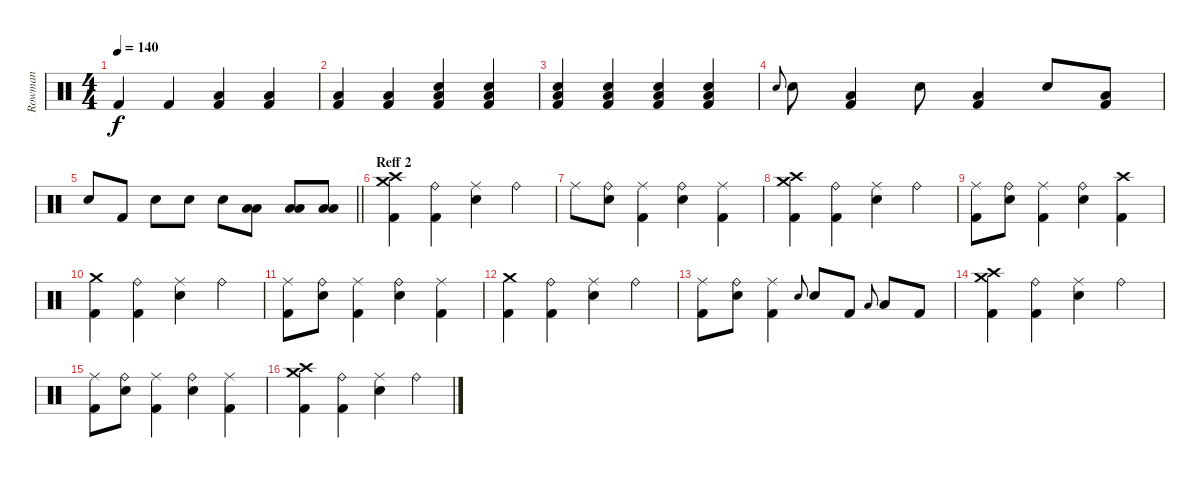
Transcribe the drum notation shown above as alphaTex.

\track ("Rowman" "Rowman") {instrument percussion}
\staff {score}
\articulation defaults
\ts (4 4)
\tempo 140
\clef neutral
\ks c "Kick (hit) 2".4{dy f} "Kick (hit) 2".4
("Low Floor Tom (hit)" "Kick (hit) 2").4 ("Low Floor Tom (hit)" "Kick (hit) 2").4 |
("Low Floor Tom (hit)" "Kick (hit) 2").4 ("Low Floor Tom (hit)" "Kick (hit) 2").4 ("Low Floor Tom (hit)" "Snare (hit) 2" "Kick (hit) 2").4 ("Low Floor Tom (hit)" "Snare (hit) 2" "Kick (hit) 2").4 |
("Low Floor Tom (hit)" "Snare (hit) 2" "Kick (hit) 2").4 ("Low Floor Tom (hit)" "Snare (hit) 2" "Kick (hit) 2").4 ("Low Floor Tom (hit)" "Snare (hit) 2" "Kick (hit) 2").4 ("Low Floor Tom (hit)" "Snare (hit) 2" "Kick (hit) 2").4 |
"Snare (hit) 2".8{gr onbeat} "Snare (hit) 2".8 ("Low Floor Tom (hit)" "Kick (hit) 2").4 "Snare (hit) 2".8 ("Low Floor Tom (hit)" "Kick (hit) 2").4 "Snare (hit) 2".8 ("Low Floor Tom (hit)" "Kick (hit) 2").8 |
\barLineRight lightlight "Snare (hit) 2".8 "Kick (hit) 2".8 "Snare (hit) 2".8 "Snare (hit) 2".8 "Snare (hit) 2".8
("Low Floor Tom (hit)" "Low Tom (hit)").8 ("Low Tom (hit)" "Low Floor Tom (hit)").8 ("Low Tom (hit)" "Low Floor Tom (hit)").8 |
\section ("" "Reff 2")
("Crash medium (hit)" "Crash high (hit)" "Kick (hit) 2").4 ("Ride (bell)" "Kick (hit) 2").4 ("Ride (middle)" "Snare (hit) 2").4 "Ride (bell)".4 |
"Ride (middle)".8 ("Ride (bell)" "Snare (hit) 2").8 ("Ride (middle)" "Kick (hit) 2").4 ("Ride (bell)" "Snare (hit) 2").4 ("Ride (middle)" "Kick (hit) 2").4 |
("Crash medium (hit)" "Crash high (hit)" "Kick (hit) 2").4 ("Ride (bell)" "Kick (hit) 2").4 ("Ride (middle)" "Snare (hit) 2").4 "Ride (bell)".4 |
("Ride (middle)" "Kick (hit) 2").8 ("Ride (bell)" "Snare (hit) 2").8 ("Ride (middle)" "Kick (hit) 2").4 ("Ride (bell)" "Snare (hit) 2").4 ("Crash high (hit)" "Kick (hit) 2").4 |
("Crash medium (hit)" "Kick (hit) 2").4 ("Ride (bell)" "Kick (hit) 2").4 ("Ride (middle)" "Snare (hit) 2").4 "Ride (bell)".4 |
("Ride (middle)" "Kick (hit) 2").8 ("Ride (bell)" "Snare (hit) 2").8 ("Ride (middle)" "Kick (hit) 2").4 ("Ride (bell)" "Snare (hit) 2").4 ("Ride (middle)" "Kick (hit) 2").4 |
("Crash medium (hit)" "Kick (hit) 2").4 ("Ride (bell)" "Kick (hit) 2").4 ("Ride (middle)" "Snare (hit) 2").4 "Ride (bell)".4 |
("Ride (middle)" "Kick (hit) 2").8 ("Ride (bell)" "Snare (hit) 2").8 ("Ride (middle)" "Kick (hit) 2").4 "Snare (hit) 2".8{gr onbeat} "Snare (hit) 2".8 "Kick (hit) 2".8 "Low Floor Tom (hit)".8{gr onbeat} "Low Floor Tom (hit)".8 "Kick (hit) 2".8 |
("Crash medium (hit)" "Crash high (hit)" "Kick (hit) 2").4 ("Ride (bell)" "Kick (hit) 2").4 ("Ride (middle)" "Snare (hit) 2").4 "Ride (bell)".4 |
("Ride (middle)" "Kick (hit) 2").8 ("Ride (bell)" "Snare (hit) 2").8 ("Ride (middle)" "Kick (hit) 2").4 ("Ride (bell)" "Snare (hit) 2").4 ("Ride (middle)" "Kick (hit) 2").4 |
("Crash medium (hit)" "Crash high (hit)" "Kick (hit) 2").4 ("Ride (bell)" "Kick (hit) 2").4 ("Ride (middle)" "Snare (hit) 2").4 "Ride (bell)".4
